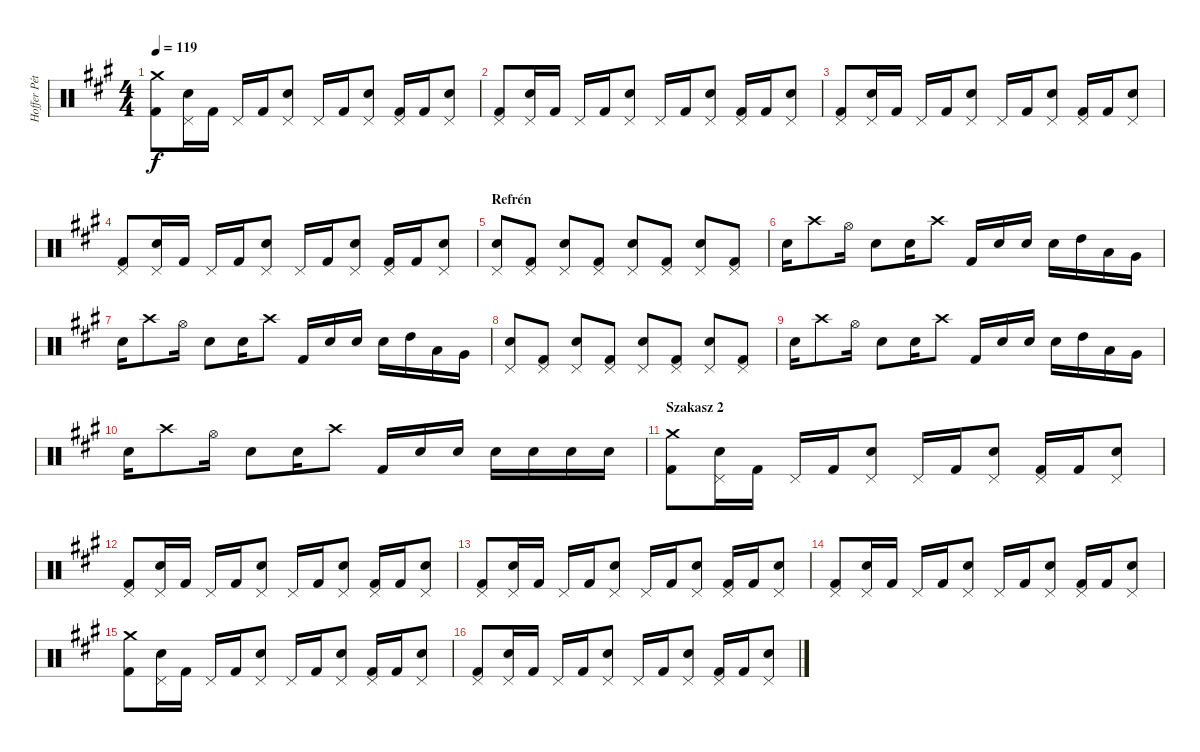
\track ("Hoffer Péter" "Hoffer Pét") {instrument percussion}
\staff {score}
\articulation defaults
\ts (4 4)
\tempo 119
\clef neutral
\ks f#minor
("Crash medium (hit)" "Kick (hit) 2").8{dy f} ("Pedal Hi-Hat (hit)" "Snare (hit) 2").16 "Kick (hit) 2".16 "Pedal Hi-Hat (hit)".16 "Kick (hit) 2".16 ("Pedal Hi-Hat (hit)" "Snare (hit) 2").8 "Pedal Hi-Hat (hit)".16 "Kick (hit) 2".16 ("Pedal Hi-Hat (hit)" "Snare (hit) 2").8 ("Pedal Hi-Hat (hit)" "Kick (hit) 2").16 "Kick (hit) 2".16 ("Pedal Hi-Hat (hit)" "Snare (hit) 2").8 |
("Pedal Hi-Hat (hit)" "Kick (hit) 2").8 ("Pedal Hi-Hat (hit)" "Snare (hit) 2").16 "Kick (hit) 2".16 "Pedal Hi-Hat (hit)".16 "Kick (hit) 2".16 ("Pedal Hi-Hat (hit)" "Snare (hit) 2").8 "Pedal Hi-Hat (hit)".16 "Kick (hit) 2".16 ("Pedal Hi-Hat (hit)" "Snare (hit) 2").8 ("Pedal Hi-Hat (hit)" "Kick (hit) 2").16 "Kick (hit) 2".16 ("Pedal Hi-Hat (hit)" "Snare (hit) 2").8 |
("Pedal Hi-Hat (hit)" "Kick (hit) 2").8 ("Pedal Hi-Hat (hit)" "Snare (hit) 2").16 "Kick (hit) 2".16 "Pedal Hi-Hat (hit)".16 "Kick (hit) 2".16 ("Pedal Hi-Hat (hit)" "Snare (hit) 2").8 "Pedal Hi-Hat (hit)".16 "Kick (hit) 2".16 ("Pedal Hi-Hat (hit)" "Snare (hit) 2").8 ("Pedal Hi-Hat (hit)" "Kick (hit) 2").16 "Kick (hit) 2".16 ("Pedal Hi-Hat (hit)" "Snare (hit) 2").8 |
("Pedal Hi-Hat (hit)" "Kick (hit) 2").8 ("Pedal Hi-Hat (hit)" "Snare (hit) 2").16 "Kick (hit) 2".16 "Pedal Hi-Hat (hit)".16 "Kick (hit) 2".16 ("Pedal Hi-Hat (hit)" "Snare (hit) 2").8 "Pedal Hi-Hat (hit)".16 "Kick (hit) 2".16 ("Pedal Hi-Hat (hit)" "Snare (hit) 2").8 ("Pedal Hi-Hat (hit)" "Kick (hit) 2").16 "Kick (hit) 2".16 ("Pedal Hi-Hat (hit)" "Snare (hit) 2").8 |
\section ("" "Refrén")
("Pedal Hi-Hat (hit)" "Snare (hit) 2").8 ("Pedal Hi-Hat (hit)" "Kick (hit) 2").8 ("Pedal Hi-Hat (hit)" "Snare (hit) 2").8 ("Pedal Hi-Hat (hit)" "Kick (hit) 2").8 ("Pedal Hi-Hat (hit)" "Snare (hit) 2").8 ("Pedal Hi-Hat (hit)" "Kick (hit) 2").8 ("Pedal Hi-Hat (hit)" "Snare (hit) 2").8 ("Pedal Hi-Hat (hit)" "Kick (hit) 2").8 |
"Snare (hit) 2".16 "Crash high (hit)".8 "Hi-Hat (open)".16 "Snare (hit) 2".8 "Snare (hit) 2".16 "Crash high (hit)".8 "Kick (hit) 2".16 "Snare (hit) 2".16 "Snare (hit) 2".16 "Snare (hit) 2".16 "High Tom (hit)".16 "Low Tom (hit)".16 "Very Low Tom (hit)".16 |
"Snare (hit) 2".16 "Crash high (hit)".8 "Hi-Hat (open)".16 "Snare (hit) 2".8 "Snare (hit) 2".16 "Crash high (hit)".8 "Kick (hit) 2".16 "Snare (hit) 2".16 "Snare (hit) 2".16 "Snare (hit) 2".16 "High Tom (hit)".16 "Low Tom (hit)".16 "Very Low Tom (hit)".16 |
("Pedal Hi-Hat (hit)" "Snare (hit) 2").8 ("Pedal Hi-Hat (hit)" "Kick (hit) 2").8 ("Pedal Hi-Hat (hit)" "Snare (hit) 2").8 ("Pedal Hi-Hat (hit)" "Kick (hit) 2").8 ("Pedal Hi-Hat (hit)" "Snare (hit) 2").8 ("Pedal Hi-Hat (hit)" "Kick (hit) 2").8 ("Pedal Hi-Hat (hit)" "Snare (hit) 2").8 ("Pedal Hi-Hat (hit)" "Kick (hit) 2").8 |
"Snare (hit) 2".16 "Crash high (hit)".8 "Hi-Hat (open)".16 "Snare (hit) 2".8 "Snare (hit) 2".16 "Crash high (hit)".8 "Kick (hit) 2".16 "Snare (hit) 2".16 "Snare (hit) 2".16 "Snare (hit) 2".16 "High Tom (hit)".16 "Low Tom (hit)".16 "Very Low Tom (hit)".16 |
"Snare (hit) 2".16 "Crash high (hit)".8 "Hi-Hat (open)".16 "Snare (hit) 2".8 "Snare (hit) 2".16 "Crash high (hit)".8 "Kick (hit) 2".16 "Snare (hit) 2".16 "Snare (hit) 2".16 "Snare (hit) 2".16 "Snare (hit) 2".16 "Snare (hit) 2".16 "Snare (hit) 2".16 |
\section ("" "Szakasz 2")
("Crash medium (hit)" "Kick (hit) 2").8 ("Pedal Hi-Hat (hit)" "Snare (hit) 2").16 "Kick (hit) 2".16 "Pedal Hi-Hat (hit)".16 "Kick (hit) 2".16 ("Pedal Hi-Hat (hit)" "Snare (hit) 2").8 "Pedal Hi-Hat (hit)".16 "Kick (hit) 2".16 ("Pedal Hi-Hat (hit)" "Snare (hit) 2").8 ("Pedal Hi-Hat (hit)" "Kick (hit) 2").16 "Kick (hit) 2".16 ("Pedal Hi-Hat (hit)" "Snare (hit) 2").8 |
("Pedal Hi-Hat (hit)" "Kick (hit) 2").8 ("Pedal Hi-Hat (hit)" "Snare (hit) 2").16 "Kick (hit) 2".16 "Pedal Hi-Hat (hit)".16 "Kick (hit) 2".16 ("Pedal Hi-Hat (hit)" "Snare (hit) 2").8 "Pedal Hi-Hat (hit)".16 "Kick (hit) 2".16 ("Pedal Hi-Hat (hit)" "Snare (hit) 2").8 ("Pedal Hi-Hat (hit)" "Kick (hit) 2").16 "Kick (hit) 2".16 ("Pedal Hi-Hat (hit)" "Snare (hit) 2").8 |
("Pedal Hi-Hat (hit)" "Kick (hit) 2").8 ("Pedal Hi-Hat (hit)" "Snare (hit) 2").16 "Kick (hit) 2".16 "Pedal Hi-Hat (hit)".16 "Kick (hit) 2".16 ("Pedal Hi-Hat (hit)" "Snare (hit) 2").8 "Pedal Hi-Hat (hit)".16 "Kick (hit) 2".16 ("Pedal Hi-Hat (hit)" "Snare (hit) 2").8 ("Pedal Hi-Hat (hit)" "Kick (hit) 2").16 "Kick (hit) 2".16 ("Pedal Hi-Hat (hit)" "Snare (hit) 2").8 |
("Pedal Hi-Hat (hit)" "Kick (hit) 2").8 ("Pedal Hi-Hat (hit)" "Snare (hit) 2").16 "Kick (hit) 2".16 "Pedal Hi-Hat (hit)".16 "Kick (hit) 2".16 ("Pedal Hi-Hat (hit)" "Snare (hit) 2").8 "Pedal Hi-Hat (hit)".16 "Kick (hit) 2".16 ("Pedal Hi-Hat (hit)" "Snare (hit) 2").8 ("Pedal Hi-Hat (hit)" "Kick (hit) 2").16 "Kick (hit) 2".16 ("Pedal Hi-Hat (hit)" "Snare (hit) 2").8 |
("Crash medium (hit)" "Kick (hit) 2").8 ("Pedal Hi-Hat (hit)" "Snare (hit) 2").16 "Kick (hit) 2".16 "Pedal Hi-Hat (hit)".16 "Kick (hit) 2".16 ("Pedal Hi-Hat (hit)" "Snare (hit) 2").8 "Pedal Hi-Hat (hit)".16 "Kick (hit) 2".16 ("Pedal Hi-Hat (hit)" "Snare (hit) 2").8 ("Pedal Hi-Hat (hit)" "Kick (hit) 2").16 "Kick (hit) 2".16 ("Pedal Hi-Hat (hit)" "Snare (hit) 2").8 |
("Pedal Hi-Hat (hit)" "Kick (hit) 2").8 ("Pedal Hi-Hat (hit)" "Snare (hit) 2").16 "Kick (hit) 2".16 "Pedal Hi-Hat (hit)".16 "Kick (hit) 2".16 ("Pedal Hi-Hat (hit)" "Snare (hit) 2").8 "Pedal Hi-Hat (hit)".16 "Kick (hit) 2".16 ("Pedal Hi-Hat (hit)" "Snare (hit) 2").8 ("Pedal Hi-Hat (hit)" "Kick (hit) 2").16 "Kick (hit) 2".16 ("Pedal Hi-Hat (hit)" "Snare (hit) 2").8
